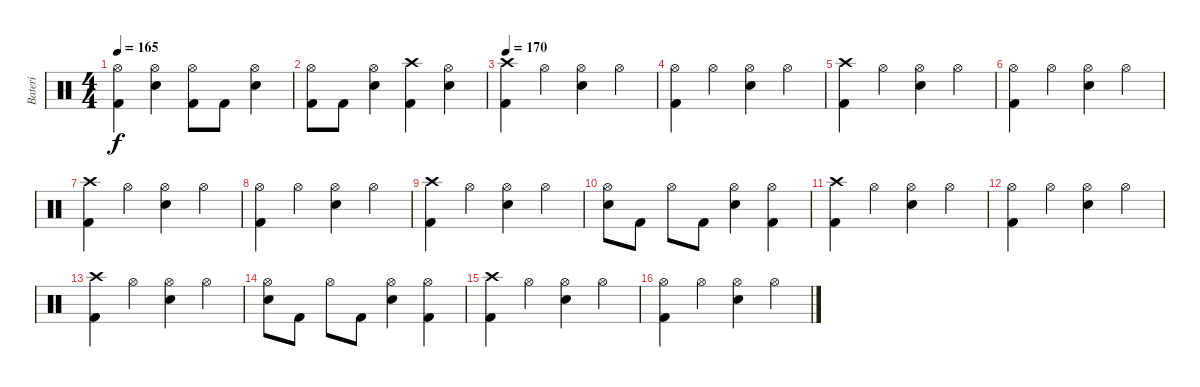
\track ("Bateri" "Bateri") {instrument percussion}
\staff {score}
\articulation defaults
\ts (4 4)
\tempo 165
\clef neutral
\ks c
("Hi-Hat (open)" "Kick (hit) 2").4{dy f} ("Hi-Hat (open)" "Snare (hit) 2").4 ("Hi-Hat (open)" "Kick (hit) 2").8 "Kick (hit) 2".8 ("Hi-Hat (open)" "Snare (hit) 2").4 |
("Hi-Hat (open)" "Kick (hit) 2").8 "Kick (hit) 2".8 ("Hi-Hat (open)" "Snare (hit) 2").4 ("Crash high (hit)" "Kick (hit) 2").4 ("Hi-Hat (open)" "Snare (hit) 2").4 |
\tempo 170
("Crash high (hit)" "Kick (hit) 2").4 "Hi-Hat (open)".4 ("Hi-Hat (open)" "Snare (hit) 2").4 "Hi-Hat (open)".4 |
("Hi-Hat (open)" "Kick (hit) 2").4 "Hi-Hat (open)".4 ("Hi-Hat (open)" "Snare (hit) 2").4 "Hi-Hat (open)".4 |
("Crash high (hit)" "Kick (hit) 2").4 "Hi-Hat (open)".4 ("Hi-Hat (open)" "Snare (hit) 2").4 "Hi-Hat (open)".4 |
("Hi-Hat (open)" "Kick (hit) 2").4 "Hi-Hat (open)".4 ("Hi-Hat (open)" "Snare (hit) 2").4 "Hi-Hat (open)".4 |
("Crash high (hit)" "Kick (hit) 2").4 "Hi-Hat (open)".4 ("Hi-Hat (open)" "Snare (hit) 2").4 "Hi-Hat (open)".4 |
("Hi-Hat (open)" "Kick (hit) 2").4 "Hi-Hat (open)".4 ("Hi-Hat (open)" "Snare (hit) 2").4 "Hi-Hat (open)".4 |
("Crash high (hit)" "Kick (hit) 2").4 "Hi-Hat (open)".4 ("Hi-Hat (open)" "Snare (hit) 2").4 "Hi-Hat (open)".4 |
("Hi-Hat (open)" "Snare (hit) 2").8 "Kick (hit) 2".8 "Hi-Hat (open)".8 "Kick (hit) 2".8 ("Hi-Hat (open)" "Snare (hit) 2").4 ("Hi-Hat (open)" "Kick (hit) 2").4 |
("Crash high (hit)" "Kick (hit) 2").4 "Hi-Hat (open)".4 ("Hi-Hat (open)" "Snare (hit) 2").4 "Hi-Hat (open)".4 |
("Hi-Hat (open)" "Kick (hit) 2").4 "Hi-Hat (open)".4 ("Hi-Hat (open)" "Snare (hit) 2").4 "Hi-Hat (open)".4 |
("Crash high (hit)" "Kick (hit) 2").4 "Hi-Hat (open)".4 ("Hi-Hat (open)" "Snare (hit) 2").4 "Hi-Hat (open)".4 |
("Hi-Hat (open)" "Snare (hit) 2").8 "Kick (hit) 2".8 "Hi-Hat (open)".8 "Kick (hit) 2".8 ("Hi-Hat (open)" "Snare (hit) 2").4 ("Hi-Hat (open)" "Kick (hit) 2").4 |
("Crash high (hit)" "Kick (hit) 2").4 "Hi-Hat (open)".4 ("Hi-Hat (open)" "Snare (hit) 2").4 "Hi-Hat (open)".4 |
("Hi-Hat (open)" "Kick (hit) 2").4 "Hi-Hat (open)".4 ("Hi-Hat (open)" "Snare (hit) 2").4 "Hi-Hat (open)".4
